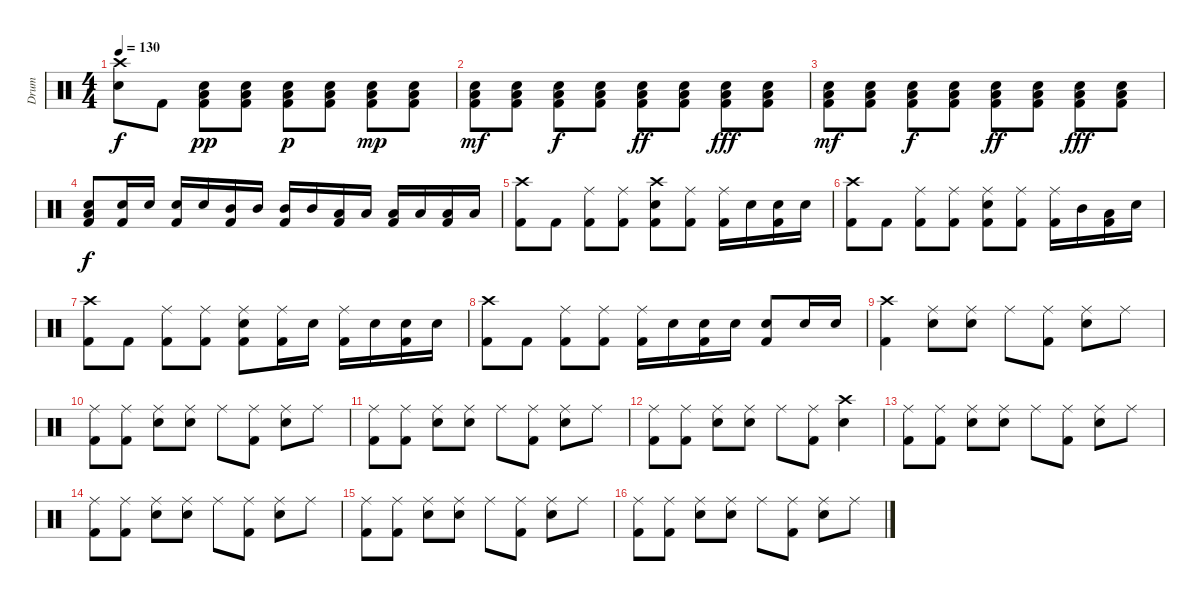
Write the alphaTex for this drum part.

\track ("Drum" "Drum") {instrument percussion}
\staff {score}
\articulation defaults
\ts (4 4)
\tempo 130
\clef neutral
\ks c
("Crash high (hit)" "Electric Snare (hit)").8{dy f} "Kick (hit) 2".8 ("Electric Snare (hit)" "Low Floor Tom (hit)" "Kick (hit) 2").8{dy pp} ("Electric Snare (hit)" "Low Floor Tom (hit)" "Kick (hit) 2").8 ("Electric Snare (hit)" "Low Floor Tom (hit)" "Kick (hit) 2").8{dy p} ("Electric Snare (hit)" "Low Floor Tom (hit)" "Kick (hit) 2").8 ("Electric Snare (hit)" "Low Floor Tom (hit)" "Kick (hit) 2").8{dy mp} ("Electric Snare (hit)" "Low Floor Tom (hit)" "Kick (hit) 2").8 |
("Electric Snare (hit)" "Low Floor Tom (hit)" "Kick (hit) 2").8{dy mf} ("Electric Snare (hit)" "Low Floor Tom (hit)" "Kick (hit) 2").8 ("Electric Snare (hit)" "Low Floor Tom (hit)" "Kick (hit) 2").8{dy f} ("Electric Snare (hit)" "Low Floor Tom (hit)" "Kick (hit) 2").8 ("Electric Snare (hit)" "Low Floor Tom (hit)" "Kick (hit) 2").8{dy ff} ("Electric Snare (hit)" "Low Floor Tom (hit)" "Kick (hit) 2").8 ("Electric Snare (hit)" "Low Floor Tom (hit)" "Kick (hit) 2").8{dy fff} ("Electric Snare (hit)" "Low Floor Tom (hit)" "Kick (hit) 2").8 |
("Electric Snare (hit)" "Low Floor Tom (hit)" "Kick (hit) 2").8{dy mf} ("Electric Snare (hit)" "Low Floor Tom (hit)" "Kick (hit) 2").8 ("Electric Snare (hit)" "Low Floor Tom (hit)" "Kick (hit) 2").8{dy f} ("Electric Snare (hit)" "Low Floor Tom (hit)" "Kick (hit) 2").8 ("Electric Snare (hit)" "Low Floor Tom (hit)" "Kick (hit) 2").8{dy ff} ("Electric Snare (hit)" "Low Floor Tom (hit)" "Kick (hit) 2").8 ("Electric Snare (hit)" "Low Floor Tom (hit)" "Kick (hit) 2").8{dy fff} ("Electric Snare (hit)" "Low Floor Tom (hit)" "Kick (hit) 2").8 |
("Electric Snare (hit)" "Low Floor Tom (hit)" "Kick (hit) 2").8{dy f} ("Electric Snare (hit)" "Kick (hit) 2").16 "Electric Snare (hit)".16 ("Electric Snare (hit)" "Kick (hit) 2").16 "Electric Snare (hit)".16 ("Mid Tom (hit)" "Kick (hit) 2").16 "Mid Tom (hit)".16 ("Mid Tom (hit)" "Kick (hit) 2").16 "Mid Tom (hit)".16 ("Low Tom (hit)" "Kick (hit) 2").16 "Low Tom (hit)".16 ("Low Tom (hit)" "Kick (hit) 2").16 "Low Tom (hit)".16 ("Low Floor Tom (hit)" "Kick (hit) 2").16 "Low Floor Tom (hit)".16 |
("Crash high (hit)" "Kick (hit) 2").8 "Kick (hit) 2".8 ("Ride (middle)" "Kick (hit) 2").8 ("Ride (middle)" "Kick (hit) 2").8 ("Crash high (hit)" "Electric Snare (hit)" "Kick (hit) 2").8 ("Ride (middle)" "Kick (hit) 2").8 ("Ride (middle)" "Kick (hit) 2").16 "Electric Snare (hit)".16 ("Electric Snare (hit)" "Kick (hit) 2").16 "Electric Snare (hit)".16 |
("Crash high (hit)" "Kick (hit) 2").8 "Kick (hit) 2".8 ("Ride (middle)" "Kick (hit) 2").8 ("Ride (middle)" "Kick (hit) 2").8 ("Ride (middle)" "Electric Snare (hit)" "Kick (hit) 2").8 ("Ride (middle)" "Kick (hit) 2").8 ("Ride (middle)" "Kick (hit) 2").16 "Mid Tom (hit)".16 ("Low Tom (hit)" "Kick (hit) 2").16 "Electric Snare (hit)".16 |
("Crash high (hit)" "Kick (hit) 2").8 "Kick (hit) 2".8 ("Ride (middle)" "Kick (hit) 2").8 ("Ride (middle)" "Kick (hit) 2").8 ("Ride (middle)" "Electric Snare (hit)" "Kick (hit) 2").8 ("Ride (middle)" "Kick (hit) 2").16 "Electric Snare (hit)".16 ("Ride (middle)" "Kick (hit) 2").16 "Electric Snare (hit)".16 ("Electric Snare (hit)" "Kick (hit) 2").16 "Electric Snare (hit)".16 |
("Crash high (hit)" "Kick (hit) 2").8 "Kick (hit) 2".8 ("Ride (middle)" "Kick (hit) 2").8 ("Ride (middle)" "Kick (hit) 2").8 ("Ride (middle)" "Kick (hit) 2").16 "Electric Snare (hit)".16 ("Electric Snare (hit)" "Kick (hit) 2").16 "Electric Snare (hit)".16 ("Electric Snare (hit)" "Kick (hit) 2").8 "Electric Snare (hit)".16 "Electric Snare (hit)".16 |
("Crash high (hit)" "Kick (hit) 2").4 ("Ride (middle)" "Electric Snare (hit)").8 ("Ride (middle)" "Electric Snare (hit)").8 "Ride (middle)".8 ("Ride (middle)" "Kick (hit) 2").8 ("Ride (middle)" "Electric Snare (hit)").8 "Ride (middle)".8 |
("Ride (middle)" "Kick (hit) 2").8 ("Ride (middle)" "Kick (hit) 2").8 ("Ride (middle)" "Electric Snare (hit)").8 ("Ride (middle)" "Electric Snare (hit)").8 "Ride (middle)".8 ("Ride (middle)" "Kick (hit) 2").8 ("Ride (middle)" "Electric Snare (hit)").8 "Ride (middle)".8 |
("Ride (middle)" "Kick (hit) 2").8 ("Ride (middle)" "Kick (hit) 2").8 ("Ride (middle)" "Electric Snare (hit)").8 ("Ride (middle)" "Electric Snare (hit)").8 "Ride (middle)".8 ("Ride (middle)" "Kick (hit) 2").8 ("Ride (middle)" "Electric Snare (hit)").8 "Ride (middle)".8 |
("Ride (middle)" "Kick (hit) 2").8 ("Ride (middle)" "Kick (hit) 2").8 ("Ride (middle)" "Electric Snare (hit)").8 ("Ride (middle)" "Electric Snare (hit)").8 "Ride (middle)".8 ("Ride (middle)" "Kick (hit) 2").8 ("Crash high (hit)" "Electric Snare (hit)").4 |
("Ride (middle)" "Kick (hit) 2").8 ("Ride (middle)" "Kick (hit) 2").8 ("Ride (middle)" "Electric Snare (hit)").8 ("Ride (middle)" "Electric Snare (hit)").8 "Ride (middle)".8 ("Ride (middle)" "Kick (hit) 2").8 ("Ride (middle)" "Electric Snare (hit)").8 "Ride (middle)".8 |
("Ride (middle)" "Kick (hit) 2").8 ("Ride (middle)" "Kick (hit) 2").8 ("Ride (middle)" "Electric Snare (hit)").8 ("Ride (middle)" "Electric Snare (hit)").8 "Ride (middle)".8 ("Ride (middle)" "Kick (hit) 2").8 ("Ride (middle)" "Electric Snare (hit)").8 "Ride (middle)".8 |
("Ride (middle)" "Kick (hit) 2").8 ("Ride (middle)" "Kick (hit) 2").8 ("Ride (middle)" "Electric Snare (hit)").8 ("Ride (middle)" "Electric Snare (hit)").8 "Ride (middle)".8 ("Ride (middle)" "Kick (hit) 2").8 ("Ride (middle)" "Electric Snare (hit)").8 "Ride (middle)".8 |
("Ride (middle)" "Kick (hit) 2").8 ("Ride (middle)" "Kick (hit) 2").8 ("Ride (middle)" "Electric Snare (hit)").8 ("Ride (middle)" "Electric Snare (hit)").8 "Ride (middle)".8 ("Ride (middle)" "Kick (hit) 2").8 ("Ride (middle)" "Electric Snare (hit)").8 "Ride (middle)".8
